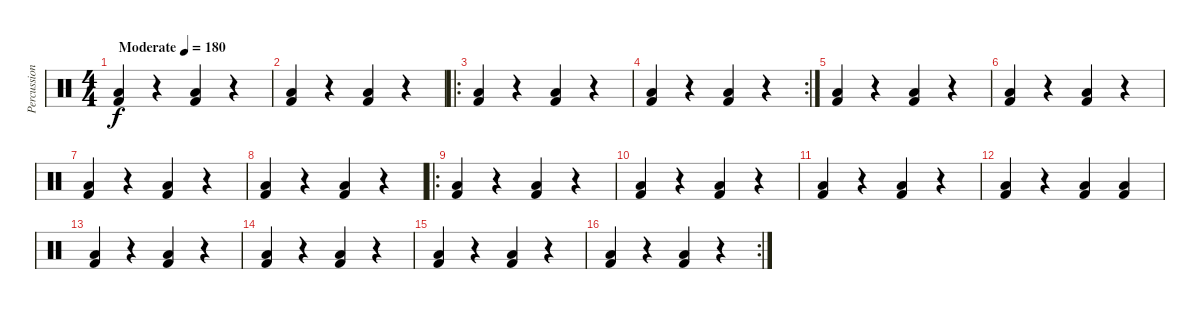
\track ("Percussion" "Percussion") {instrument percussion}
\staff {score}
\articulation defaults
\ts (4 4)
\tempo (180 "Moderate")
\clef neutral
\ks c
("Low Floor Tom (hit)" "Kick (hit) 2").4{dy f} r.4 ("Low Floor Tom (hit)" "Kick (hit) 2").4 r.4 |
("Low Floor Tom (hit)" "Kick (hit) 2").4 r.4 ("Low Floor Tom (hit)" "Kick (hit) 2").4 r.4 |
\ro
("Low Floor Tom (hit)" "Kick (hit) 2").4 r.4 ("Low Floor Tom (hit)" "Kick (hit) 2").4 r.4 |
\rc 2
("Low Floor Tom (hit)" "Kick (hit) 2").4 r.4 ("Low Floor Tom (hit)" "Kick (hit) 2").4 r.4 |
("Low Floor Tom (hit)" "Kick (hit) 2").4 r.4 ("Low Floor Tom (hit)" "Kick (hit) 2").4 r.4 |
("Low Floor Tom (hit)" "Kick (hit) 2").4 r.4 ("Low Floor Tom (hit)" "Kick (hit) 2").4 r.4 |
("Low Floor Tom (hit)" "Kick (hit) 2").4 r.4 ("Low Floor Tom (hit)" "Kick (hit) 2").4 r.4 |
("Low Floor Tom (hit)" "Kick (hit) 2").4 r.4 ("Low Floor Tom (hit)" "Kick (hit) 2").4 r.4 |
\ro
("Low Floor Tom (hit)" "Kick (hit) 2").4 r.4 ("Low Floor Tom (hit)" "Kick (hit) 2").4 r.4 |
("Low Floor Tom (hit)" "Kick (hit) 2").4 r.4 ("Low Floor Tom (hit)" "Kick (hit) 2").4 r.4 |
("Low Floor Tom (hit)" "Kick (hit) 2").4 r.4 ("Low Floor Tom (hit)" "Kick (hit) 2").4 r.4 |
("Low Floor Tom (hit)" "Kick (hit) 2").4 r.4 ("Low Floor Tom (hit)" "Kick (hit) 2").4 ("Low Floor Tom (hit)" "Kick (hit) 2").4 |
("Low Floor Tom (hit)" "Kick (hit) 2").4 r.4 ("Low Floor Tom (hit)" "Kick (hit) 2").4 r.4 |
("Low Floor Tom (hit)" "Kick (hit) 2").4 r.4 ("Low Floor Tom (hit)" "Kick (hit) 2").4 r.4 |
("Low Floor Tom (hit)" "Kick (hit) 2").4 r.4 ("Low Floor Tom (hit)" "Kick (hit) 2").4 r.4 |
\rc 2
("Low Floor Tom (hit)" "Kick (hit) 2").4 r.4 ("Low Floor Tom (hit)" "Kick (hit) 2").4 r.4
